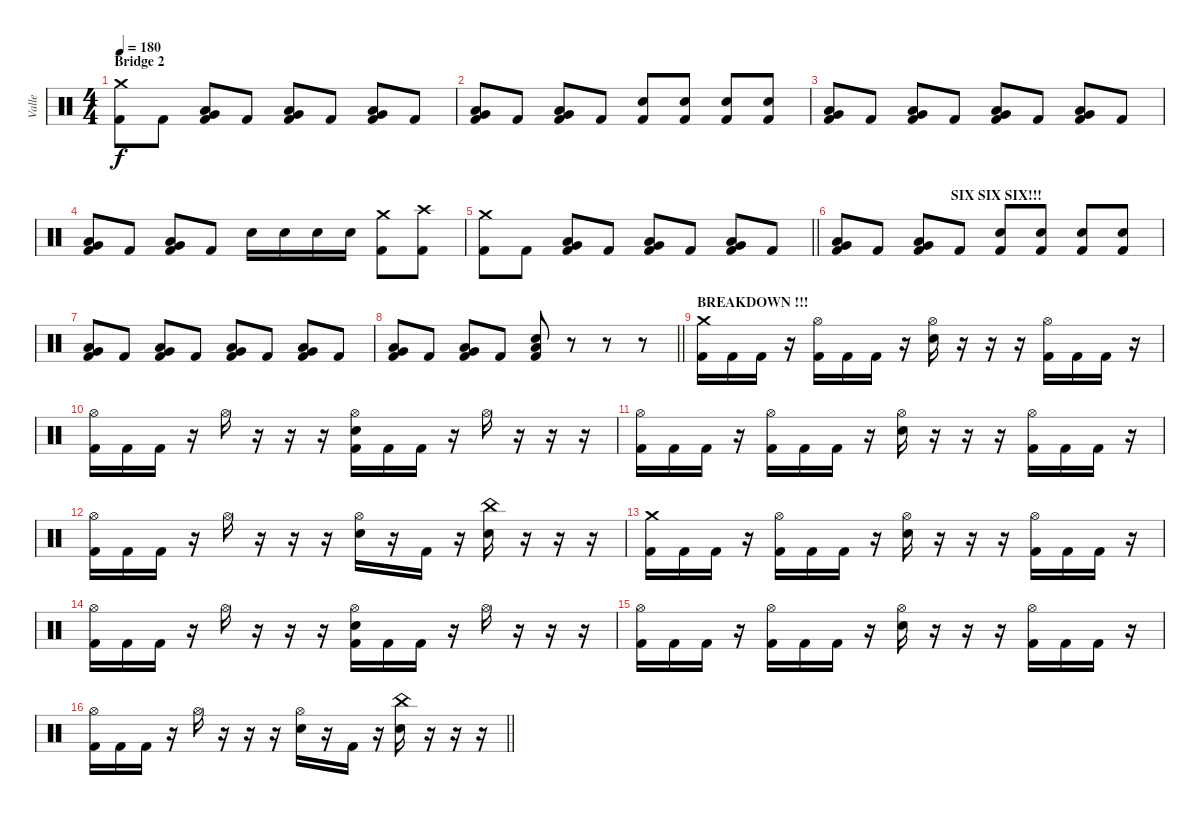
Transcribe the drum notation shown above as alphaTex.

\track ("Valle" "Valle") {instrument percussion}
\staff {score}
\articulation defaults
\ts (4 4)
\section ("" "Bridge 2")
\tempo 180
\clef neutral
\ks c
("Crash medium (hit)" "Kick (hit) 2").8{dy f} "Kick (hit) 2".8 ("Very Low Tom (hit)" "Low Floor Tom (hit)" "Kick (hit) 2").8 "Kick (hit) 2".8 ("Very Low Tom (hit)" "Low Floor Tom (hit)" "Kick (hit) 2").8 "Kick (hit) 2".8 ("Very Low Tom (hit)" "Low Floor Tom (hit)" "Kick (hit) 2").8 "Kick (hit) 2".8 |
("Very Low Tom (hit)" "Low Floor Tom (hit)" "Kick (hit) 2").8 "Kick (hit) 2".8 ("Very Low Tom (hit)" "Low Floor Tom (hit)" "Kick (hit) 2").8 "Kick (hit) 2".8 ("Snare (hit) 2" "Kick (hit) 2").8 ("Snare (hit) 2" "Kick (hit) 2").8 ("Snare (hit) 2" "Kick (hit) 2").8 ("Snare (hit) 2" "Kick (hit) 2").8 |
("Very Low Tom (hit)" "Low Floor Tom (hit)" "Kick (hit) 2").8 "Kick (hit) 2".8 ("Very Low Tom (hit)" "Low Floor Tom (hit)" "Kick (hit) 2").8 "Kick (hit) 2".8 ("Very Low Tom (hit)" "Low Floor Tom (hit)" "Kick (hit) 2").8 "Kick (hit) 2".8 ("Very Low Tom (hit)" "Low Floor Tom (hit)" "Kick (hit) 2").8 "Kick (hit) 2".8 |
("Very Low Tom (hit)" "Low Floor Tom (hit)" "Kick (hit) 2").8 "Kick (hit) 2".8 ("Very Low Tom (hit)" "Low Floor Tom (hit)" "Kick (hit) 2").8 "Kick (hit) 2".8 "Snare (hit) 2".16 "Snare (hit) 2".16 "Snare (hit) 2".16 "Snare (hit) 2".16 ("Crash medium (hit)" "Kick (hit) 2").8 ("Crash high (hit)" "Kick (hit) 2").8 |
\barLineRight lightlight
("Crash medium (hit)" "Kick (hit) 2").8 "Kick (hit) 2".8 ("Very Low Tom (hit)" "Low Floor Tom (hit)" "Kick (hit) 2").8 "Kick (hit) 2".8 ("Very Low Tom (hit)" "Low Floor Tom (hit)" "Kick (hit) 2").8 "Kick (hit) 2".8 ("Very Low Tom (hit)" "Low Floor Tom (hit)" "Kick (hit) 2").8 "Kick (hit) 2".8 |
\section ("" "                                  SIX SIX SIX!!!")
("Very Low Tom (hit)" "Low Floor Tom (hit)" "Kick (hit) 2").8 "Kick (hit) 2".8 ("Very Low Tom (hit)" "Low Floor Tom (hit)" "Kick (hit) 2").8 "Kick (hit) 2".8 ("Snare (hit) 2" "Kick (hit) 2").8 ("Snare (hit) 2" "Kick (hit) 2").8 ("Snare (hit) 2" "Kick (hit) 2").8 ("Snare (hit) 2" "Kick (hit) 2").8 |
("Very Low Tom (hit)" "Low Floor Tom (hit)" "Kick (hit) 2").8 "Kick (hit) 2".8 ("Very Low Tom (hit)" "Low Floor Tom (hit)" "Kick (hit) 2").8 "Kick (hit) 2".8 ("Very Low Tom (hit)" "Low Floor Tom (hit)" "Kick (hit) 2").8 "Kick (hit) 2".8 ("Very Low Tom (hit)" "Low Floor Tom (hit)" "Kick (hit) 2").8 "Kick (hit) 2".8 |
\barLineRight lightlight
("Very Low Tom (hit)" "Low Floor Tom (hit)" "Kick (hit) 2").8 "Kick (hit) 2".8 ("Very Low Tom (hit)" "Low Floor Tom (hit)" "Kick (hit) 2").8 "Kick (hit) 2".8 ("Low Floor Tom (hit)" "Snare (hit) 2" "Kick (hit) 2").8 r.8 r.8 r.8 |
\section ("" "BREAKDOWN !!!")
("Crash medium (hit)" "Kick (hit) 2").16 "Kick (hit) 2".16 "Kick (hit) 2".16 r.16 ("Hi-Hat (open)" "Kick (hit) 2").16 "Kick (hit) 2".16 "Kick (hit) 2".16 r.16 ("Hi-Hat (open)" "Snare (hit) 2").16 r.16 r.16 r.16 ("Hi-Hat (open)" "Kick (hit) 2").16 "Kick (hit) 2".16 "Kick (hit) 2".16 r.16 |
("Hi-Hat (open)" "Kick (hit) 2").16 "Kick (hit) 2".16 "Kick (hit) 2".16 r.16 "Hi-Hat (open)".16 r.16 r.16 r.16 ("Hi-Hat (open)" "Snare (hit) 2" "Kick (hit) 2").16 "Kick (hit) 2".16 "Kick (hit) 2".16 r.16 "Hi-Hat (open)".16 r.16 r.16 r.16 |
("Hi-Hat (open)" "Kick (hit) 2").16 "Kick (hit) 2".16 "Kick (hit) 2".16 r.16 ("Hi-Hat (open)" "Kick (hit) 2").16 "Kick (hit) 2".16 "Kick (hit) 2".16 r.16 ("Hi-Hat (open)" "Snare (hit) 2").16 r.16 r.16 r.16 ("Hi-Hat (open)" "Kick (hit) 2").16 "Kick (hit) 2".16 "Kick (hit) 2".16 r.16 |
("Hi-Hat (open)" "Kick (hit) 2").16 "Kick (hit) 2".16 "Kick (hit) 2".16 r.16 "Hi-Hat (open)".16 r.16 r.16 r.16 ("Hi-Hat (open)" "Snare (hit) 2").16 r.16 "Kick (hit) 2".16 r.16 ("China (hit)" "Snare (hit) 2").16 r.16 r.16 r.16 |
("Crash medium (hit)" "Kick (hit) 2").16 "Kick (hit) 2".16 "Kick (hit) 2".16 r.16 ("Hi-Hat (open)" "Kick (hit) 2").16 "Kick (hit) 2".16 "Kick (hit) 2".16 r.16 ("Hi-Hat (open)" "Snare (hit) 2").16 r.16 r.16 r.16 ("Hi-Hat (open)" "Kick (hit) 2").16 "Kick (hit) 2".16 "Kick (hit) 2".16 r.16 |
("Hi-Hat (open)" "Kick (hit) 2").16 "Kick (hit) 2".16 "Kick (hit) 2".16 r.16 "Hi-Hat (open)".16 r.16 r.16 r.16 ("Hi-Hat (open)" "Snare (hit) 2" "Kick (hit) 2").16 "Kick (hit) 2".16 "Kick (hit) 2".16 r.16 "Hi-Hat (open)".16 r.16 r.16 r.16 |
("Hi-Hat (open)" "Kick (hit) 2").16 "Kick (hit) 2".16 "Kick (hit) 2".16 r.16 ("Hi-Hat (open)" "Kick (hit) 2").16 "Kick (hit) 2".16 "Kick (hit) 2".16 r.16 ("Hi-Hat (open)" "Snare (hit) 2").16 r.16 r.16 r.16 ("Hi-Hat (open)" "Kick (hit) 2").16 "Kick (hit) 2".16 "Kick (hit) 2".16 r.16 |
\barLineRight lightlight
("Hi-Hat (open)" "Kick (hit) 2").16 "Kick (hit) 2".16 "Kick (hit) 2".16 r.16 "Hi-Hat (open)".16 r.16 r.16 r.16 ("Hi-Hat (open)" "Snare (hit) 2").16 r.16 "Kick (hit) 2".16 r.16 ("China (hit)" "Snare (hit) 2").16 r.16 r.16 r.16
